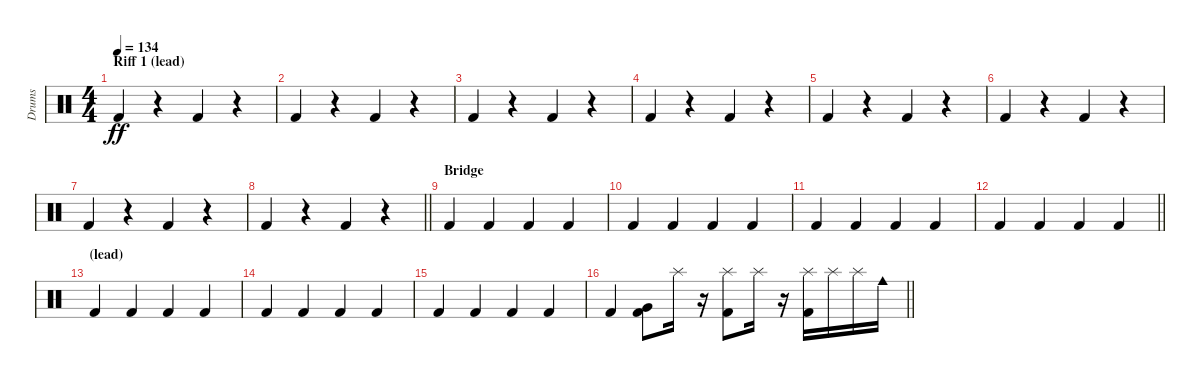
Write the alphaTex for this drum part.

\track ("Drums" "Drums") {instrument percussion}
\staff {score}
\articulation defaults
\ts (4 4)
\section ("" "Riff 1 (lead)")
\tempo 134
\clef neutral
\ks c "Kick (hit) 2".4{dy ff}
r.4 "Kick (hit) 2".4 r.4 |
"Kick (hit) 2".4 r.4 "Kick (hit) 2".4 r.4 |
"Kick (hit) 2".4 r.4 "Kick (hit) 2".4 r.4 |
"Kick (hit) 2".4 r.4 "Kick (hit) 2".4 r.4 |
"Kick (hit) 2".4 r.4 "Kick (hit) 2".4 r.4 |
"Kick (hit) 2".4 r.4 "Kick (hit) 2".4 r.4 |
"Kick (hit) 2".4 r.4 "Kick (hit) 2".4 r.4 |
\barLineRight lightlight "Kick (hit) 2".4
r.4 "Kick (hit) 2".4 r.4 |
\section ("" "Bridge")
"Kick (hit) 2".4 "Kick (hit) 2".4 "Kick (hit) 2".4 "Kick (hit) 2".4 |
"Kick (hit) 2".4 "Kick (hit) 2".4 "Kick (hit) 2".4 "Kick (hit) 2".4 |
"Kick (hit) 2".4 "Kick (hit) 2".4 "Kick (hit) 2".4 "Kick (hit) 2".4 |
\barLineRight lightlight "Kick (hit) 2".4 "Kick (hit) 2".4 "Kick (hit) 2".4 "Kick (hit) 2".4
|
\section ("" "(lead)")
"Kick (hit) 2".4 "Kick (hit) 2".4 "Kick (hit) 2".4 "Kick (hit) 2".4 |
"Kick (hit) 2".4 "Kick (hit) 2".4 "Kick (hit) 2".4 "Kick (hit) 2".4 |
"Kick (hit) 2".4 "Kick (hit) 2".4 "Kick (hit) 2".4 "Kick (hit) 2".4 |
\barLineRight lightlight "Kick (hit) 2".4
("Kick (hit) 2" "Very Low Tom (hit)").8 "Splash (hit)".16 r.16 ("Kick (hit) 2" "Splash (hit)").8 "Splash (hit)".16 r.16 ("Kick (hit) 2" "Splash (hit)").16 "Splash (hit)".16 "Splash (hit)".16 "Cowbell medium (hit)".16
